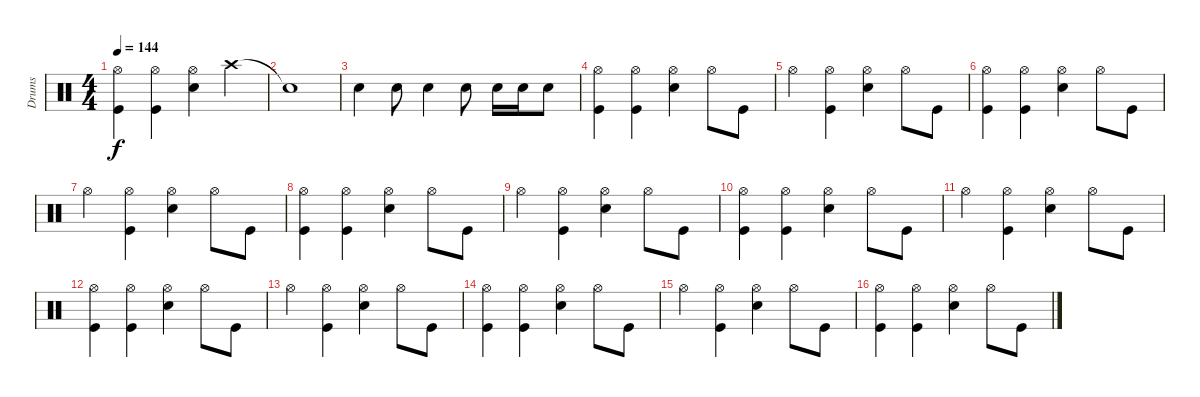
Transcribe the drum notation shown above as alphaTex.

\track ("Drums               " "Drums     ") {instrument percussion}
\staff {score}
\articulation defaults
\ts (4 4)
\tempo 144
\clef neutral
\ks c
("Kick (hit)" "Hi-Hat (open)").4{dy f} ("Kick (hit)" "Hi-Hat (open)").4 ("Snare (hit) 2" "Hi-Hat (open)").4 "Crash high (hit)".4 |
"Snare (hit)"{t}.1 |
"Snare (hit) 2".4 "Snare (hit) 2".8 "Snare (hit) 2".4 "Snare (hit) 2".8 "Snare (hit) 2".16 "Snare (hit) 2".16 "Snare (hit) 2".8 |
("Kick (hit)" "Hi-Hat (open)").4 ("Kick (hit)" "Hi-Hat (open)").4 ("Snare (hit) 2" "Hi-Hat (open)").4 "Hi-Hat (open)".8 "Kick (hit)".8 |
"Hi-Hat (open)".4 ("Hi-Hat (open)" "Kick (hit)").4 ("Snare (hit) 2" "Hi-Hat (open)").4 "Hi-Hat (open)".8 "Kick (hit)".8 |
("Kick (hit)" "Hi-Hat (open)").4 ("Kick (hit)" "Hi-Hat (open)").4 ("Snare (hit) 2" "Hi-Hat (open)").4 "Hi-Hat (open)".8 "Kick (hit)".8 |
"Hi-Hat (open)".4 ("Hi-Hat (open)" "Kick (hit)").4 ("Snare (hit) 2" "Hi-Hat (open)").4 "Hi-Hat (open)".8 "Kick (hit)".8 |
("Kick (hit)" "Hi-Hat (open)").4 ("Kick (hit)" "Hi-Hat (open)").4 ("Snare (hit) 2" "Hi-Hat (open)").4 "Hi-Hat (open)".8 "Kick (hit)".8 |
"Hi-Hat (open)".4 ("Hi-Hat (open)" "Kick (hit)").4 ("Snare (hit) 2" "Hi-Hat (open)").4 "Hi-Hat (open)".8 "Kick (hit)".8 |
("Kick (hit)" "Hi-Hat (open)").4 ("Kick (hit)" "Hi-Hat (open)").4 ("Snare (hit) 2" "Hi-Hat (open)").4 "Hi-Hat (open)".8 "Kick (hit)".8 |
"Hi-Hat (open)".4 ("Hi-Hat (open)" "Kick (hit)").4 ("Snare (hit) 2" "Hi-Hat (open)").4 "Hi-Hat (open)".8 "Kick (hit)".8 |
("Kick (hit)" "Hi-Hat (open)").4 ("Kick (hit)" "Hi-Hat (open)").4 ("Snare (hit) 2" "Hi-Hat (open)").4 "Hi-Hat (open)".8 "Kick (hit)".8 |
"Hi-Hat (open)".4 ("Hi-Hat (open)" "Kick (hit)").4 ("Snare (hit) 2" "Hi-Hat (open)").4 "Hi-Hat (open)".8 "Kick (hit)".8 |
("Kick (hit)" "Hi-Hat (open)").4 ("Kick (hit)" "Hi-Hat (open)").4 ("Snare (hit) 2" "Hi-Hat (open)").4 "Hi-Hat (open)".8 "Kick (hit)".8 |
"Hi-Hat (open)".4 ("Hi-Hat (open)" "Kick (hit)").4 ("Snare (hit) 2" "Hi-Hat (open)").4 "Hi-Hat (open)".8 "Kick (hit)".8 |
("Kick (hit)" "Hi-Hat (open)").4 ("Kick (hit)" "Hi-Hat (open)").4 ("Snare (hit) 2" "Hi-Hat (open)").4 "Hi-Hat (open)".8 "Kick (hit)".8
